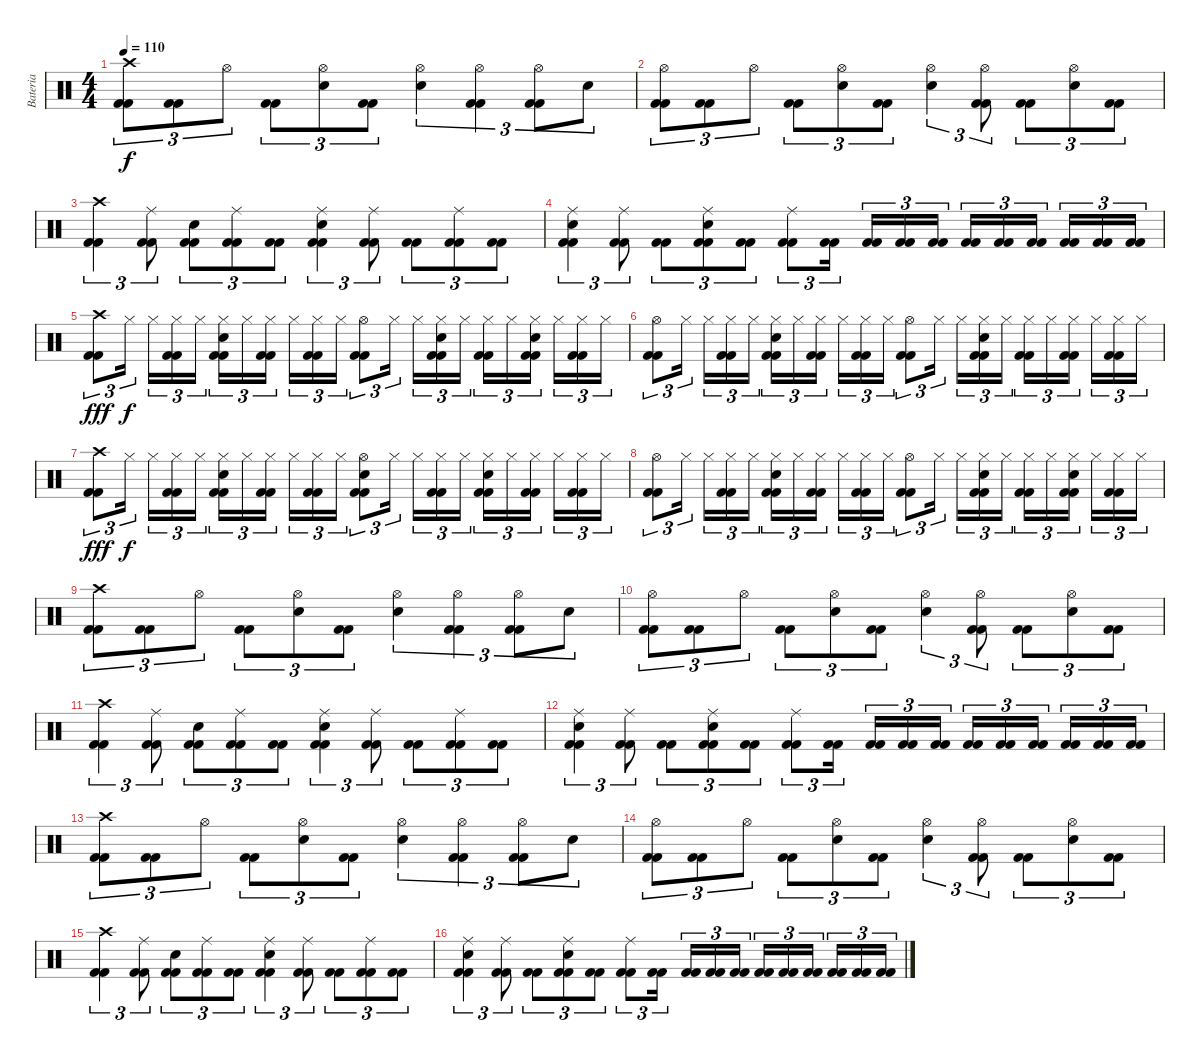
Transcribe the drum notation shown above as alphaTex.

\track ("Bateria" "Bateria") {instrument percussion}
\staff {score}
\articulation defaults
\ts (4 4)
\tempo 110
\clef neutral
\ks c
("Crash high (hit)" "Kick (hit) 2" "Kick (hit) 2").8{tu (3 2) dy f} ("Kick (hit) 2" "Kick (hit) 2").8{tu (3 2)} "Hi-Hat (open)".8{tu (3 2)} ("Kick (hit) 2" "Kick (hit) 2").8{tu (3 2)} ("Hi-Hat (open)" "Electric Snare (hit)").8{tu (3 2)} ("Kick (hit) 2" "Kick (hit) 2").8{tu (3 2)} ("Hi-Hat (open)" "Electric Snare (hit)").4{tu (3 2)} ("Hi-Hat (open)" "Kick (hit) 2" "Kick (hit) 2").4{tu (3 2)} ("Hi-Hat (open)" "Kick (hit) 2" "Kick (hit) 2").8{tu (3 2)} "Electric Snare (hit)".8{tu (3 2)} |
("Hi-Hat (open)" "Kick (hit) 2" "Kick (hit) 2").8{tu (3 2)} ("Kick (hit) 2" "Kick (hit) 2").8{tu (3 2)} "Hi-Hat (open)".8{tu (3 2)} ("Kick (hit) 2" "Kick (hit) 2").8{tu (3 2)} ("Hi-Hat (open)" "Electric Snare (hit)").8{tu (3 2)} ("Kick (hit) 2" "Kick (hit) 2").8{tu (3 2)} ("Hi-Hat (open)" "Electric Snare (hit)").4{tu (3 2)} ("Hi-Hat (open)" "Kick (hit) 2" "Kick (hit) 2").8{tu (3 2)} ("Kick (hit) 2" "Kick (hit) 2").8{tu (3 2)} ("Hi-Hat (open)" "Electric Snare (hit)").8{tu (3 2)} ("Kick (hit) 2" "Kick (hit) 2").8{tu (3 2)} |
("Crash high (hit)" "Kick (hit) 2" "Kick (hit) 2").4{tu (3 2)} ("Ride (middle)" "Kick (hit) 2" "Kick (hit) 2").8{tu (3 2)} ("Electric Snare (hit)" "Kick (hit) 2" "Kick (hit) 2").8{tu (3 2)} ("Ride (middle)" "Kick (hit) 2" "Kick (hit) 2").8{tu (3 2)} ("Kick (hit) 2" "Kick (hit) 2").8{tu (3 2)} ("Ride (middle)" "Electric Snare (hit)" "Kick (hit) 2" "Kick (hit) 2").4{tu (3 2)} ("Ride (middle)" "Kick (hit) 2" "Kick (hit) 2").8{tu (3 2)} ("Kick (hit) 2" "Kick (hit) 2").8{tu (3 2)} ("Ride (middle)" "Kick (hit) 2" "Kick (hit) 2").8{tu (3 2)} ("Kick (hit) 2" "Kick (hit) 2").8{tu (3 2)} |
("Ride (middle)" "Electric Snare (hit)" "Kick (hit) 2" "Kick (hit) 2").4{tu (3 2)} ("Ride (middle)" "Kick (hit) 2" "Kick (hit) 2").8{tu (3 2)} ("Kick (hit) 2" "Kick (hit) 2").8{tu (3 2)} ("Ride (middle)" "Electric Snare (hit)" "Kick (hit) 2" "Kick (hit) 2").8{tu (3 2)} ("Kick (hit) 2" "Kick (hit) 2").8{tu (3 2)} ("Ride (middle)" "Kick (hit) 2" "Kick (hit) 2").8{tu (3 2)} ("Kick (hit) 2" "Kick (hit) 2").16{tu (3 2)} ("Kick (hit) 2" "Kick (hit) 2").16{tu (3 2)} ("Kick (hit) 2" "Kick (hit) 2").16{tu (3 2)} ("Kick (hit) 2" "Kick (hit) 2").16{tu (3 2)} ("Kick (hit) 2" "Kick (hit) 2").16{tu (3 2)} ("Kick (hit) 2" "Kick (hit) 2").16{tu (3 2)} ("Kick (hit) 2" "Kick (hit) 2").16{tu (3 2)} ("Kick (hit) 2" "Kick (hit) 2").16{tu (3 2)} ("Kick (hit) 2" "Kick (hit) 2").16{tu (3 2)} ("Kick (hit) 2" "Kick (hit) 2").16{tu (3 2)} |
("Crash high (hit)" "Kick (hit) 2" "Kick (hit) 2").8{tu (3 2) dy fff} "Hi-Hat (closed)".16{tu (3 2) dy f} "Hi-Hat (closed)".16{tu (3 2)} ("Hi-Hat (closed)" "Kick (hit) 2" "Kick (hit) 2").16{tu (3 2)} "Hi-Hat (closed)".16{tu (3 2)} ("Hi-Hat (closed)" "Electric Snare (hit)" "Kick (hit) 2" "Kick (hit) 2").16{tu (3 2)} "Hi-Hat (closed)".16{tu (3 2)} ("Hi-Hat (closed)" "Kick (hit) 2" "Kick (hit) 2").16{tu (3 2)} "Hi-Hat (closed)".16{tu (3 2)} ("Hi-Hat (closed)" "Kick (hit) 2" "Kick (hit) 2").16{tu (3 2)} "Hi-Hat (closed)".16{tu (3 2)} ("Hi-Hat (open)" "Kick (hit) 2" "Kick (hit) 2").8{tu (3 2)} "Hi-Hat (closed)".16{tu (3 2)} "Hi-Hat (closed)".16{tu (3 2)} ("Hi-Hat (closed)" "Electric Snare (hit)" "Kick (hit) 2" "Kick (hit) 2").16{tu (3 2)} "Hi-Hat (closed)".16{tu (3 2)} ("Hi-Hat (closed)" "Kick (hit) 2" "Kick (hit) 2").16{tu (3 2)} "Hi-Hat (closed)".16{tu (3 2)} ("Hi-Hat (closed)" "Electric Snare (hit)" "Kick (hit) 2" "Kick (hit) 2").16{tu (3 2)} "Hi-Hat (closed)".16{tu (3 2)} ("Hi-Hat (closed)" "Kick (hit) 2" "Kick (hit) 2").16{tu (3 2)} "Hi-Hat (closed)".16{tu (3 2)} |
("Hi-Hat (open)" "Kick (hit) 2" "Kick (hit) 2").8{tu (3 2)} "Hi-Hat (closed)".16{tu (3 2)} "Hi-Hat (closed)".16{tu (3 2)} ("Hi-Hat (closed)" "Kick (hit) 2" "Kick (hit) 2").16{tu (3 2)} "Hi-Hat (closed)".16{tu (3 2)} ("Hi-Hat (closed)" "Electric Snare (hit)" "Kick (hit) 2" "Kick (hit) 2").16{tu (3 2)} "Hi-Hat (closed)".16{tu (3 2)} ("Hi-Hat (closed)" "Kick (hit) 2" "Kick (hit) 2").16{tu (3 2)} "Hi-Hat (closed)".16{tu (3 2)} ("Hi-Hat (closed)" "Kick (hit) 2" "Kick (hit) 2").16{tu (3 2)} "Hi-Hat (closed)".16{tu (3 2)} ("Hi-Hat (open)" "Kick (hit) 2" "Kick (hit) 2").8{tu (3 2)} "Hi-Hat (closed)".16{tu (3 2)} "Hi-Hat (closed)".16{tu (3 2)} ("Hi-Hat (closed)" "Electric Snare (hit)" "Kick (hit) 2" "Kick (hit) 2").16{tu (3 2)} "Hi-Hat (closed)".16{tu (3 2)} ("Hi-Hat (closed)" "Kick (hit) 2" "Kick (hit) 2").16{tu (3 2)} "Hi-Hat (closed)".16{tu (3 2)} ("Hi-Hat (closed)" "Kick (hit) 2" "Kick (hit) 2").16{tu (3 2)} "Hi-Hat (closed)".16{tu (3 2)} ("Hi-Hat (closed)" "Kick (hit) 2" "Kick (hit) 2").16{tu (3 2)} "Hi-Hat (closed)".16{tu (3 2)} |
("Crash high (hit)" "Kick (hit) 2" "Kick (hit) 2").8{tu (3 2) dy fff} "Hi-Hat (closed)".16{tu (3 2) dy f} "Hi-Hat (closed)".16{tu (3 2)} ("Hi-Hat (closed)" "Kick (hit) 2" "Kick (hit) 2").16{tu (3 2)} "Hi-Hat (closed)".16{tu (3 2)} ("Hi-Hat (closed)" "Electric Snare (hit)" "Kick (hit) 2" "Kick (hit) 2").16{tu (3 2)} "Hi-Hat (closed)".16{tu (3 2)} ("Hi-Hat (closed)" "Kick (hit) 2" "Kick (hit) 2").16{tu (3 2)} "Hi-Hat (closed)".16{tu (3 2)} ("Hi-Hat (closed)" "Kick (hit) 2" "Kick (hit) 2").16{tu (3 2)} "Hi-Hat (closed)".16{tu (3 2)} ("Hi-Hat (open)" "Electric Snare (hit)" "Kick (hit) 2" "Kick (hit) 2").8{tu (3 2)} "Hi-Hat (closed)".16{tu (3 2)} "Hi-Hat (closed)".16{tu (3 2)} ("Hi-Hat (closed)" "Kick (hit) 2" "Kick (hit) 2").16{tu (3 2)} "Hi-Hat (closed)".16{tu (3 2)} ("Hi-Hat (closed)" "Electric Snare (hit)" "Kick (hit) 2" "Kick (hit) 2").16{tu (3 2)} "Hi-Hat (closed)".16{tu (3 2)} ("Hi-Hat (closed)" "Kick (hit) 2" "Kick (hit) 2").16{tu (3 2)} "Hi-Hat (closed)".16{tu (3 2)} ("Hi-Hat (closed)" "Kick (hit) 2" "Kick (hit) 2").16{tu (3 2)} "Hi-Hat (closed)".16{tu (3 2)} |
("Hi-Hat (open)" "Kick (hit) 2" "Kick (hit) 2").8{tu (3 2)} "Hi-Hat (closed)".16{tu (3 2)} "Hi-Hat (closed)".16{tu (3 2)} ("Hi-Hat (closed)" "Kick (hit) 2" "Kick (hit) 2").16{tu (3 2)} "Hi-Hat (closed)".16{tu (3 2)} ("Hi-Hat (closed)" "Electric Snare (hit)" "Kick (hit) 2" "Kick (hit) 2").16{tu (3 2)} "Hi-Hat (closed)".16{tu (3 2)} ("Hi-Hat (closed)" "Kick (hit) 2" "Kick (hit) 2").16{tu (3 2)} "Hi-Hat (closed)".16{tu (3 2)} ("Hi-Hat (closed)" "Kick (hit) 2" "Kick (hit) 2").16{tu (3 2)} "Hi-Hat (closed)".16{tu (3 2)} ("Hi-Hat (open)" "Kick (hit) 2" "Kick (hit) 2").8{tu (3 2)} "Hi-Hat (closed)".16{tu (3 2)} "Hi-Hat (closed)".16{tu (3 2)} ("Hi-Hat (closed)" "Electric Snare (hit)" "Kick (hit) 2" "Kick (hit) 2").16{tu (3 2)} "Hi-Hat (closed)".16{tu (3 2)} ("Hi-Hat (closed)" "Kick (hit) 2" "Kick (hit) 2").16{tu (3 2)} "Hi-Hat (closed)".16{tu (3 2)} ("Hi-Hat (closed)" "Electric Snare (hit)" "Kick (hit) 2" "Kick (hit) 2").16{tu (3 2)} "Hi-Hat (closed)".16{tu (3 2)} ("Hi-Hat (closed)" "Kick (hit) 2" "Kick (hit) 2").16{tu (3 2)} "Hi-Hat (closed)".16{tu (3 2)} |
("Crash high (hit)" "Kick (hit) 2" "Kick (hit) 2").8{tu (3 2)} ("Kick (hit) 2" "Kick (hit) 2").8{tu (3 2)} "Hi-Hat (open)".8{tu (3 2)} ("Kick (hit) 2" "Kick (hit) 2").8{tu (3 2)} ("Hi-Hat (open)" "Electric Snare (hit)").8{tu (3 2)} ("Kick (hit) 2" "Kick (hit) 2").8{tu (3 2)} ("Hi-Hat (open)" "Electric Snare (hit)").4{tu (3 2)} ("Hi-Hat (open)" "Kick (hit) 2" "Kick (hit) 2").4{tu (3 2)} ("Hi-Hat (open)" "Kick (hit) 2" "Kick (hit) 2").8{tu (3 2)} "Electric Snare (hit)".8{tu (3 2)} |
("Hi-Hat (open)" "Kick (hit) 2" "Kick (hit) 2").8{tu (3 2)} ("Kick (hit) 2" "Kick (hit) 2").8{tu (3 2)} "Hi-Hat (open)".8{tu (3 2)} ("Kick (hit) 2" "Kick (hit) 2").8{tu (3 2)} ("Hi-Hat (open)" "Electric Snare (hit)").8{tu (3 2)} ("Kick (hit) 2" "Kick (hit) 2").8{tu (3 2)} ("Hi-Hat (open)" "Electric Snare (hit)").4{tu (3 2)} ("Hi-Hat (open)" "Kick (hit) 2" "Kick (hit) 2").8{tu (3 2)} ("Kick (hit) 2" "Kick (hit) 2").8{tu (3 2)} ("Hi-Hat (open)" "Electric Snare (hit)").8{tu (3 2)} ("Kick (hit) 2" "Kick (hit) 2").8{tu (3 2)} |
("Crash high (hit)" "Kick (hit) 2" "Kick (hit) 2").4{tu (3 2)} ("Ride (middle)" "Kick (hit) 2" "Kick (hit) 2").8{tu (3 2)} ("Electric Snare (hit)" "Kick (hit) 2" "Kick (hit) 2").8{tu (3 2)} ("Ride (middle)" "Kick (hit) 2" "Kick (hit) 2").8{tu (3 2)} ("Kick (hit) 2" "Kick (hit) 2").8{tu (3 2)} ("Ride (middle)" "Electric Snare (hit)" "Kick (hit) 2" "Kick (hit) 2").4{tu (3 2)} ("Ride (middle)" "Kick (hit) 2" "Kick (hit) 2").8{tu (3 2)} ("Kick (hit) 2" "Kick (hit) 2").8{tu (3 2)} ("Ride (middle)" "Kick (hit) 2" "Kick (hit) 2").8{tu (3 2)} ("Kick (hit) 2" "Kick (hit) 2").8{tu (3 2)} |
("Ride (middle)" "Electric Snare (hit)" "Kick (hit) 2" "Kick (hit) 2").4{tu (3 2)} ("Ride (middle)" "Kick (hit) 2" "Kick (hit) 2").8{tu (3 2)} ("Kick (hit) 2" "Kick (hit) 2").8{tu (3 2)} ("Ride (middle)" "Electric Snare (hit)" "Kick (hit) 2" "Kick (hit) 2").8{tu (3 2)} ("Kick (hit) 2" "Kick (hit) 2").8{tu (3 2)} ("Ride (middle)" "Kick (hit) 2" "Kick (hit) 2").8{tu (3 2)} ("Kick (hit) 2" "Kick (hit) 2").16{tu (3 2)} ("Kick (hit) 2" "Kick (hit) 2").16{tu (3 2)} ("Kick (hit) 2" "Kick (hit) 2").16{tu (3 2)} ("Kick (hit) 2" "Kick (hit) 2").16{tu (3 2)} ("Kick (hit) 2" "Kick (hit) 2").16{tu (3 2)} ("Kick (hit) 2" "Kick (hit) 2").16{tu (3 2)} ("Kick (hit) 2" "Kick (hit) 2").16{tu (3 2)} ("Kick (hit) 2" "Kick (hit) 2").16{tu (3 2)} ("Kick (hit) 2" "Kick (hit) 2").16{tu (3 2)} ("Kick (hit) 2" "Kick (hit) 2").16{tu (3 2)} |
("Crash high (hit)" "Kick (hit) 2" "Kick (hit) 2").8{tu (3 2)} ("Kick (hit) 2" "Kick (hit) 2").8{tu (3 2)} "Hi-Hat (open)".8{tu (3 2)} ("Kick (hit) 2" "Kick (hit) 2").8{tu (3 2)} ("Hi-Hat (open)" "Electric Snare (hit)").8{tu (3 2)} ("Kick (hit) 2" "Kick (hit) 2").8{tu (3 2)} ("Hi-Hat (open)" "Electric Snare (hit)").4{tu (3 2)} ("Hi-Hat (open)" "Kick (hit) 2" "Kick (hit) 2").4{tu (3 2)} ("Hi-Hat (open)" "Kick (hit) 2" "Kick (hit) 2").8{tu (3 2)} "Electric Snare (hit)".8{tu (3 2)} |
("Hi-Hat (open)" "Kick (hit) 2" "Kick (hit) 2").8{tu (3 2)} ("Kick (hit) 2" "Kick (hit) 2").8{tu (3 2)} "Hi-Hat (open)".8{tu (3 2)} ("Kick (hit) 2" "Kick (hit) 2").8{tu (3 2)} ("Hi-Hat (open)" "Electric Snare (hit)").8{tu (3 2)} ("Kick (hit) 2" "Kick (hit) 2").8{tu (3 2)} ("Hi-Hat (open)" "Electric Snare (hit)").4{tu (3 2)} ("Hi-Hat (open)" "Kick (hit) 2" "Kick (hit) 2").8{tu (3 2)} ("Kick (hit) 2" "Kick (hit) 2").8{tu (3 2)} ("Hi-Hat (open)" "Electric Snare (hit)").8{tu (3 2)} ("Kick (hit) 2" "Kick (hit) 2").8{tu (3 2)} |
("Crash high (hit)" "Kick (hit) 2" "Kick (hit) 2").4{tu (3 2)} ("Ride (middle)" "Kick (hit) 2" "Kick (hit) 2").8{tu (3 2)} ("Electric Snare (hit)" "Kick (hit) 2" "Kick (hit) 2").8{tu (3 2)} ("Ride (middle)" "Kick (hit) 2" "Kick (hit) 2").8{tu (3 2)} ("Kick (hit) 2" "Kick (hit) 2").8{tu (3 2)} ("Ride (middle)" "Electric Snare (hit)" "Kick (hit) 2" "Kick (hit) 2").4{tu (3 2)} ("Ride (middle)" "Kick (hit) 2" "Kick (hit) 2").8{tu (3 2)} ("Kick (hit) 2" "Kick (hit) 2").8{tu (3 2)} ("Ride (middle)" "Kick (hit) 2" "Kick (hit) 2").8{tu (3 2)} ("Kick (hit) 2" "Kick (hit) 2").8{tu (3 2)} |
("Ride (middle)" "Electric Snare (hit)" "Kick (hit) 2" "Kick (hit) 2").4{tu (3 2)} ("Ride (middle)" "Kick (hit) 2" "Kick (hit) 2").8{tu (3 2)} ("Kick (hit) 2" "Kick (hit) 2").8{tu (3 2)} ("Ride (middle)" "Electric Snare (hit)" "Kick (hit) 2" "Kick (hit) 2").8{tu (3 2)} ("Kick (hit) 2" "Kick (hit) 2").8{tu (3 2)} ("Ride (middle)" "Kick (hit) 2" "Kick (hit) 2").8{tu (3 2)} ("Kick (hit) 2" "Kick (hit) 2").16{tu (3 2)} ("Kick (hit) 2" "Kick (hit) 2").16{tu (3 2)} ("Kick (hit) 2" "Kick (hit) 2").16{tu (3 2)} ("Kick (hit) 2" "Kick (hit) 2").16{tu (3 2)} ("Kick (hit) 2" "Kick (hit) 2").16{tu (3 2)} ("Kick (hit) 2" "Kick (hit) 2").16{tu (3 2)} ("Kick (hit) 2" "Kick (hit) 2").16{tu (3 2)} ("Kick (hit) 2" "Kick (hit) 2").16{tu (3 2)} ("Kick (hit) 2" "Kick (hit) 2").16{tu (3 2)} ("Kick (hit) 2" "Kick (hit) 2").16{tu (3 2)}
